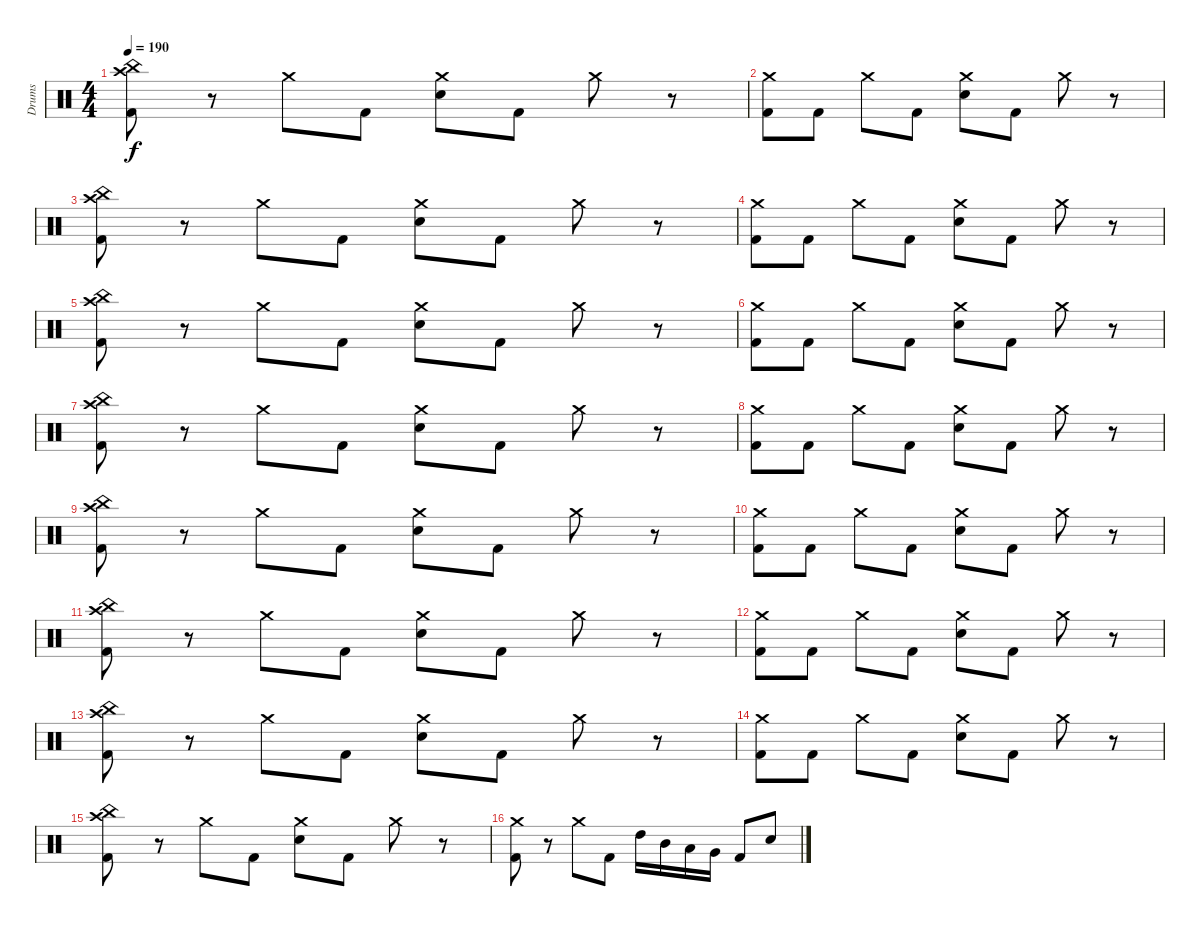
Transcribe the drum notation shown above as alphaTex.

\track ("Drums" "Drums") {instrument percussion}
\staff {score}
\articulation defaults
\ts (4 4)
\tempo 190
\clef neutral
\ks c
("Crash high (hit)" "China (hit)" "Kick (hit) 2").8{dy f} r.8 "Crash medium (hit)".8 "Kick (hit) 2".8 ("Crash medium (hit)" "Electric Snare (hit)").8 "Kick (hit) 2".8 "Crash medium (hit)".8 r.8 |
("Crash medium (hit)" "Kick (hit) 2").8 "Kick (hit) 2".8 "Crash medium (hit)".8 "Kick (hit) 2".8 ("Crash medium (hit)" "Electric Snare (hit)").8 "Kick (hit) 2".8 "Crash medium (hit)".8 r.8 |
("Crash high (hit)" "China (hit)" "Kick (hit) 2").8 r.8 "Crash medium (hit)".8 "Kick (hit) 2".8 ("Crash medium (hit)" "Electric Snare (hit)").8 "Kick (hit) 2".8 "Crash medium (hit)".8 r.8 |
("Crash medium (hit)" "Kick (hit) 2").8 "Kick (hit) 2".8 "Crash medium (hit)".8 "Kick (hit) 2".8 ("Crash medium (hit)" "Electric Snare (hit)").8 "Kick (hit) 2".8 "Crash medium (hit)".8 r.8 |
("Crash high (hit)" "China (hit)" "Kick (hit) 2").8 r.8 "Crash medium (hit)".8 "Kick (hit) 2".8 ("Crash medium (hit)" "Electric Snare (hit)").8 "Kick (hit) 2".8 "Crash medium (hit)".8 r.8 |
("Crash medium (hit)" "Kick (hit) 2").8 "Kick (hit) 2".8 "Crash medium (hit)".8 "Kick (hit) 2".8 ("Crash medium (hit)" "Electric Snare (hit)").8 "Kick (hit) 2".8 "Crash medium (hit)".8 r.8 |
("Crash high (hit)" "China (hit)" "Kick (hit) 2").8 r.8 "Crash medium (hit)".8 "Kick (hit) 2".8 ("Crash medium (hit)" "Electric Snare (hit)").8 "Kick (hit) 2".8 "Crash medium (hit)".8 r.8 |
("Crash medium (hit)" "Kick (hit) 2").8 "Kick (hit) 2".8 "Crash medium (hit)".8 "Kick (hit) 2".8 ("Crash medium (hit)" "Electric Snare (hit)").8 "Kick (hit) 2".8 "Crash medium (hit)".8 r.8 |
("Crash high (hit)" "China (hit)" "Kick (hit) 2").8 r.8 "Crash medium (hit)".8 "Kick (hit) 2".8 ("Crash medium (hit)" "Electric Snare (hit)").8 "Kick (hit) 2".8 "Crash medium (hit)".8 r.8 |
("Crash medium (hit)" "Kick (hit) 2").8 "Kick (hit) 2".8 "Crash medium (hit)".8 "Kick (hit) 2".8 ("Crash medium (hit)" "Electric Snare (hit)").8 "Kick (hit) 2".8 "Crash medium (hit)".8 r.8 |
("Crash high (hit)" "China (hit)" "Kick (hit) 2").8 r.8 "Crash medium (hit)".8 "Kick (hit) 2".8 ("Crash medium (hit)" "Electric Snare (hit)").8 "Kick (hit) 2".8 "Crash medium (hit)".8 r.8 |
("Crash medium (hit)" "Kick (hit) 2").8 "Kick (hit) 2".8 "Crash medium (hit)".8 "Kick (hit) 2".8 ("Crash medium (hit)" "Electric Snare (hit)").8 "Kick (hit) 2".8 "Crash medium (hit)".8 r.8 |
("Crash high (hit)" "China (hit)" "Kick (hit) 2").8 r.8 "Crash medium (hit)".8 "Kick (hit) 2".8 ("Crash medium (hit)" "Electric Snare (hit)").8 "Kick (hit) 2".8 "Crash medium (hit)".8 r.8 |
("Crash medium (hit)" "Kick (hit) 2").8 "Kick (hit) 2".8 "Crash medium (hit)".8 "Kick (hit) 2".8 ("Crash medium (hit)" "Electric Snare (hit)").8 "Kick (hit) 2".8 "Crash medium (hit)".8 r.8 |
("Crash high (hit)" "China (hit)" "Kick (hit) 2").8 r.8 "Crash medium (hit)".8 "Kick (hit) 2".8 ("Crash medium (hit)" "Electric Snare (hit)").8 "Kick (hit) 2".8 "Crash medium (hit)".8 r.8 |
("Crash medium (hit)" "Kick (hit) 2").8 r.8 "Crash medium (hit)".8 "Kick (hit) 2".8 "High Tom (hit)".16 "Mid Tom (hit)".16 "Low Tom (hit)".16 "Very Low Tom (hit)".16 "Kick (hit) 2".8 "Electric Snare (hit)".8
